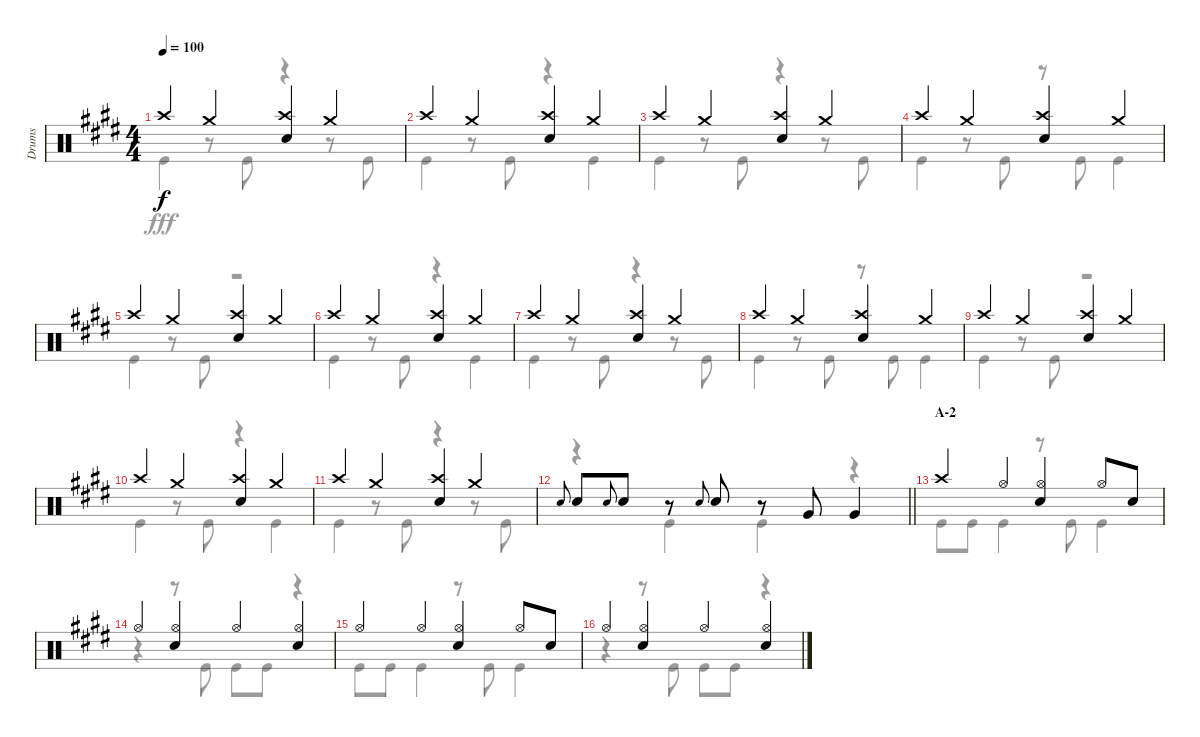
\track ("Drums" "Drums") {instrument percussion}
\staff {score}
\articulation defaults
\voice
\ts (4 4)
\tempo 100
\clef neutral
\ks e "Crash high (hit)".4{dy f} "Crash medium (hit)".4
("Crash high (hit)" "Snare (hit) 2").4 "Crash medium (hit)".4 |
"Crash high (hit)".4 "Crash medium (hit)".4 ("Crash high (hit)" "Snare (hit) 2").4 "Crash medium (hit)".4 |
"Crash high (hit)".4 "Crash medium (hit)".4 ("Crash high (hit)" "Snare (hit) 2").4 "Crash medium (hit)".4 |
"Crash high (hit)".4 "Crash medium (hit)".4 ("Crash high (hit)" "Snare (hit) 2").4 "Crash medium (hit)".4 |
"Crash high (hit)".4 "Crash medium (hit)".4 ("Crash high (hit)" "Snare (hit) 2").4 "Crash medium (hit)".4 |
"Crash high (hit)".4 "Crash medium (hit)".4 ("Crash high (hit)" "Snare (hit) 2").4 "Crash medium (hit)".4 |
"Crash high (hit)".4 "Crash medium (hit)".4 ("Crash high (hit)" "Snare (hit) 2").4 "Crash medium (hit)".4 |
"Crash high (hit)".4 "Crash medium (hit)".4 ("Crash high (hit)" "Snare (hit) 2").4 "Crash medium (hit)".4 |
"Crash high (hit)".4 "Crash medium (hit)".4 ("Crash high (hit)" "Snare (hit) 2").4 "Crash medium (hit)".4 |
"Crash high (hit)".4 "Crash medium (hit)".4 ("Crash high (hit)" "Snare (hit) 2").4 "Crash medium (hit)".4 |
"Crash high (hit)".4 "Crash medium (hit)".4 ("Crash high (hit)" "Snare (hit) 2").4 "Crash medium (hit)".4 |
\barLineRight lightlight "Snare (hit) 2".8{gr onbeat} "Snare (hit) 2".8 "Snare (hit) 2".8{gr onbeat} "Snare (hit) 2".8
r.8 "Snare (hit) 2".8{gr onbeat} "Snare (hit) 2".8 r.8 "Very Low Tom (hit)".8 "Very Low Tom (hit)".4 |
\section ("" "A-2")
"Crash high (hit)".4 "Hi-Hat (open)".4 ("Hi-Hat (open)" "Snare (hit) 2").4 "Hi-Hat (open)".8 "Snare (hit) 2".8 |
"Hi-Hat (open)".4 ("Hi-Hat (open)" "Snare (hit) 2").4 "Hi-Hat (open)".4 ("Hi-Hat (open)" "Snare (hit) 2").4 |
"Hi-Hat (open)".4 "Hi-Hat (open)".4 ("Hi-Hat (open)" "Snare (hit) 2").4 "Hi-Hat (open)".8 "Snare (hit) 2".8 |
"Hi-Hat (open)".4 ("Hi-Hat (open)" "Snare (hit) 2").4 "Hi-Hat (open)".4 ("Hi-Hat (open)" "Snare (hit) 2").4
\voice
\clef neutral
\ottava regular
\simile none
\ks e "Kick (hit)".4{dy fff}
r.8 "Kick (hit)".8 r.4 r.8 "Kick (hit)".8 |
"Kick (hit)".4 r.8 "Kick (hit)".8 r.4 "Kick (hit)".4 |
"Kick (hit)".4 r.8 "Kick (hit)".8 r.4 r.8 "Kick (hit)".8 |
"Kick (hit)".4 r.8 "Kick (hit)".8 r.8 "Kick (hit)".8 "Kick (hit)".4 |
"Kick (hit)".4 r.8 "Kick (hit)".8 r.2 |
"Kick (hit)".4 r.8 "Kick (hit)".8 r.4 "Kick (hit)".4 |
"Kick (hit)".4 r.8 "Kick (hit)".8 r.4 r.8 "Kick (hit)".8 |
"Kick (hit)".4 r.8 "Kick (hit)".8 r.8 "Kick (hit)".8 "Kick (hit)".4 |
"Kick (hit)".4 r.8 "Kick (hit)".8 r.2 |
"Kick (hit)".4 r.8 "Kick (hit)".8 r.4 "Kick (hit)".4 |
"Kick (hit)".4 r.8 "Kick (hit)".8 r.4 r.8 "Kick (hit)".8 |
\barLineRight lightlight
r.4 "Kick (hit)".4 "Kick (hit)".4 r.4 |
"Kick (hit)".8 "Kick (hit)".8 "Kick (hit)".4 r.8 "Kick (hit)".8 "Kick (hit)".4 |
r.4 r.8 "Kick (hit)".8 "Kick (hit)".8 "Kick (hit)".8 r.4 |
"Kick (hit)".8 "Kick (hit)".8 "Kick (hit)".4 r.8 "Kick (hit)".8 "Kick (hit)".4 |
r.4 r.8 "Kick (hit)".8 "Kick (hit)".8 "Kick (hit)".8 r.4
